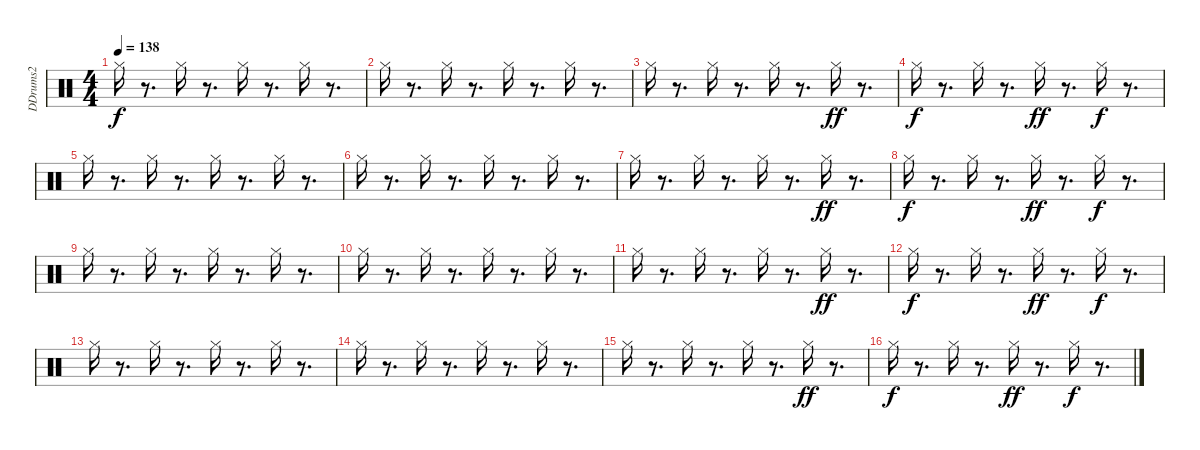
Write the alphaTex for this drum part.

\track ("DDrums2" "DDrums2") {instrument percussion}
\staff {score}
\articulation defaults
\ts (4 4)
\tempo 138
\clef neutral
\ks c "Hi-Hat (closed)".16{dy f}
r.8{d} "Hi-Hat (closed)".16 r.8{d} "Hi-Hat (closed)".16 r.8{d} "Hi-Hat (closed)".16 r.8{d} |
"Hi-Hat (closed)".16 r.8{d} "Hi-Hat (closed)".16 r.8{d} "Hi-Hat (closed)".16 r.8{d} "Hi-Hat (closed)".16 r.8{d} |
"Hi-Hat (closed)".16 r.8{d} "Hi-Hat (closed)".16 r.8{d} "Hi-Hat (closed)".16 r.8{d} "Hi-Hat (closed)".16{dy ff} r.8{d} |
"Hi-Hat (closed)".16{dy f} r.8{d} "Hi-Hat (closed)".16 r.8{d} "Hi-Hat (closed)".16{dy ff} r.8{d} "Hi-Hat (closed)".16{dy f} r.8{d} |
"Hi-Hat (closed)".16 r.8{d} "Hi-Hat (closed)".16 r.8{d} "Hi-Hat (closed)".16 r.8{d} "Hi-Hat (closed)".16 r.8{d} |
"Hi-Hat (closed)".16 r.8{d} "Hi-Hat (closed)".16 r.8{d} "Hi-Hat (closed)".16 r.8{d} "Hi-Hat (closed)".16 r.8{d} |
"Hi-Hat (closed)".16 r.8{d} "Hi-Hat (closed)".16 r.8{d} "Hi-Hat (closed)".16 r.8{d} "Hi-Hat (closed)".16{dy ff} r.8{d} |
"Hi-Hat (closed)".16{dy f} r.8{d} "Hi-Hat (closed)".16 r.8{d} "Hi-Hat (closed)".16{dy ff} r.8{d} "Hi-Hat (closed)".16{dy f} r.8{d} |
"Hi-Hat (closed)".16 r.8{d} "Hi-Hat (closed)".16 r.8{d} "Hi-Hat (closed)".16 r.8{d} "Hi-Hat (closed)".16 r.8{d} |
"Hi-Hat (closed)".16 r.8{d} "Hi-Hat (closed)".16 r.8{d} "Hi-Hat (closed)".16 r.8{d} "Hi-Hat (closed)".16 r.8{d} |
"Hi-Hat (closed)".16 r.8{d} "Hi-Hat (closed)".16 r.8{d} "Hi-Hat (closed)".16 r.8{d} "Hi-Hat (closed)".16{dy ff} r.8{d} |
"Hi-Hat (closed)".16{dy f} r.8{d} "Hi-Hat (closed)".16 r.8{d} "Hi-Hat (closed)".16{dy ff} r.8{d} "Hi-Hat (closed)".16{dy f} r.8{d} |
"Hi-Hat (closed)".16 r.8{d} "Hi-Hat (closed)".16 r.8{d} "Hi-Hat (closed)".16 r.8{d} "Hi-Hat (closed)".16 r.8{d} |
"Hi-Hat (closed)".16 r.8{d} "Hi-Hat (closed)".16 r.8{d} "Hi-Hat (closed)".16 r.8{d} "Hi-Hat (closed)".16 r.8{d} |
"Hi-Hat (closed)".16 r.8{d} "Hi-Hat (closed)".16 r.8{d} "Hi-Hat (closed)".16 r.8{d} "Hi-Hat (closed)".16{dy ff} r.8{d} |
"Hi-Hat (closed)".16{dy f} r.8{d} "Hi-Hat (closed)".16 r.8{d} "Hi-Hat (closed)".16{dy ff} r.8{d} "Hi-Hat (closed)".16{dy f} r.8{d}
